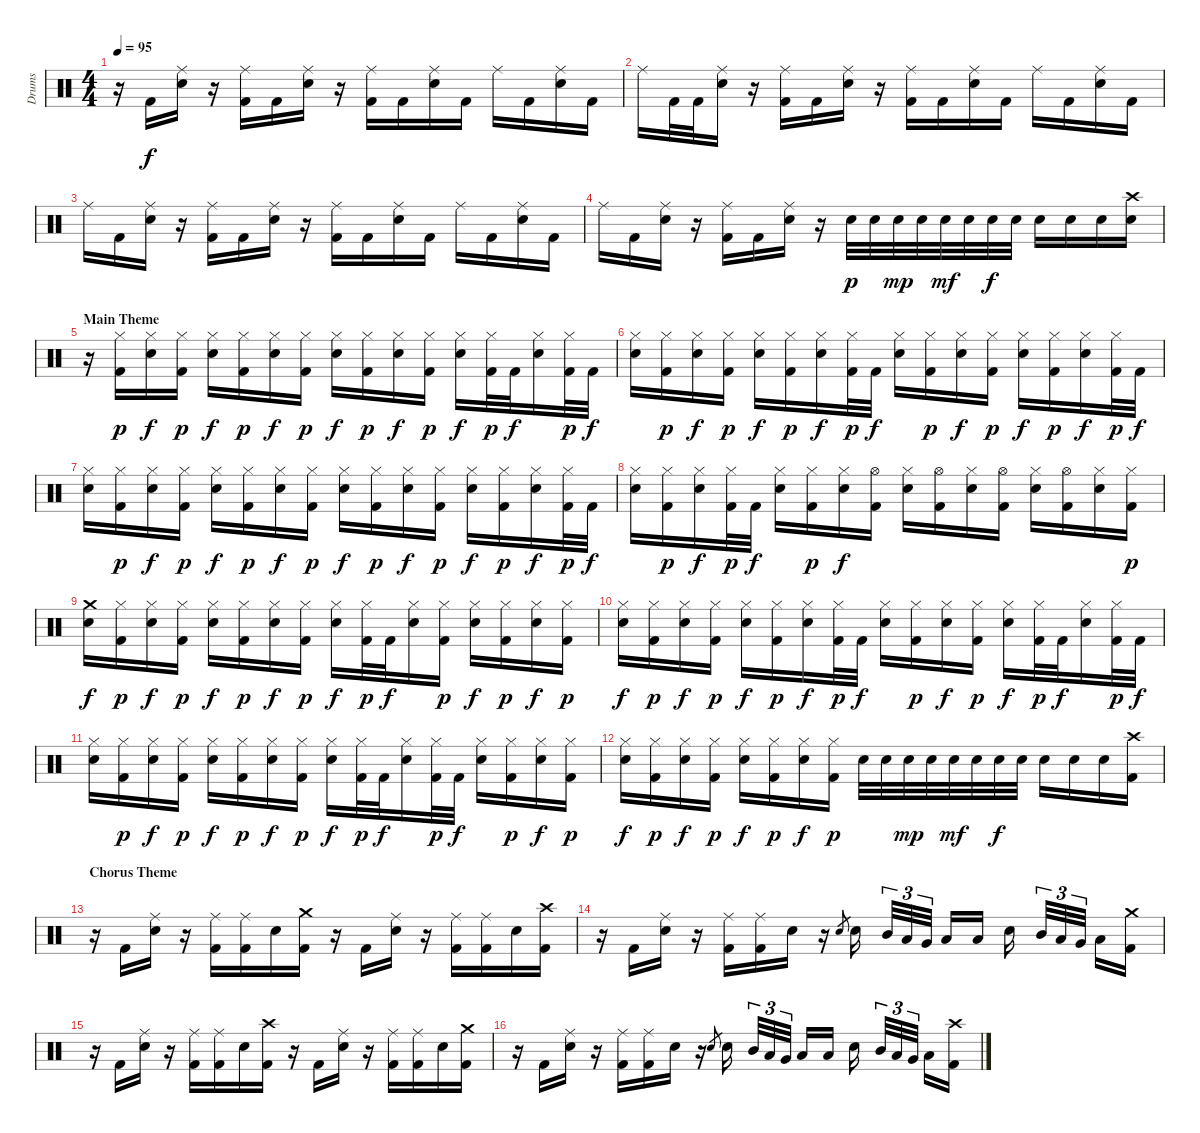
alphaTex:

\track ("Drums" "Drums") {instrument percussion}
\staff {score}
\articulation defaults
\ts (4 4)
\tempo 95
\clef neutral
\ks c
r.16{dy f} "Kick (hit) 2".16 ("Ride (middle)" "Snare (hit) 2").16 r.16 ("Ride (middle)" "Kick (hit) 2").16 "Kick (hit) 2".16 ("Ride (middle)" "Snare (hit) 2").16 r.16 ("Ride (middle)" "Kick (hit) 2").16 "Kick (hit) 2".16 ("Ride (middle)" "Snare (hit) 2").16 "Kick (hit) 2".16 "Ride (middle)".16 "Kick (hit) 2".16 ("Ride (middle)" "Snare (hit) 2").16 "Kick (hit) 2".16 |
"Ride (middle)".16 "Kick (hit) 2".32 "Kick (hit) 2".32 ("Ride (middle)" "Snare (hit) 2").16 r.16 ("Ride (middle)" "Kick (hit) 2").16 "Kick (hit) 2".16 ("Ride (middle)" "Snare (hit) 2").16 r.16 ("Ride (middle)" "Kick (hit) 2").16 "Kick (hit) 2".16 ("Ride (middle)" "Snare (hit) 2").16 "Kick (hit) 2".16 "Ride (middle)".16 "Kick (hit) 2".16 ("Ride (middle)" "Snare (hit) 2").16 "Kick (hit) 2".16 |
"Ride (middle)".16 "Kick (hit) 2".16 ("Ride (middle)" "Snare (hit) 2").16 r.16 ("Ride (middle)" "Kick (hit) 2").16 "Kick (hit) 2".16 ("Ride (middle)" "Snare (hit) 2").16 r.16 ("Ride (middle)" "Kick (hit) 2").16 "Kick (hit) 2".16 ("Ride (middle)" "Snare (hit) 2").16 "Kick (hit) 2".16 "Ride (middle)".16 "Kick (hit) 2".16 ("Ride (middle)" "Snare (hit) 2").16 "Kick (hit) 2".16 |
"Ride (middle)".16 "Kick (hit) 2".16 ("Ride (middle)" "Snare (hit) 2").16 r.16 ("Ride (middle)" "Kick (hit) 2").16 "Kick (hit) 2".16 ("Ride (middle)" "Snare (hit) 2").16 r.16 "Snare (hit) 2".32{dy p} "Snare (hit) 2".32 "Snare (hit) 2".32{dy mp} "Snare (hit) 2".32 "Snare (hit) 2".32{dy mf} "Snare (hit) 2".32 "Snare (hit) 2".32{dy f} "Snare (hit) 2".32 "Snare (hit) 2".16 "Snare (hit) 2".16 "Snare (hit) 2".16 ("Crash high (hit)" "Snare (hit) 2").16 |
\section ("" "Main Theme")
r.16 ("Hi-Hat (closed)" "Kick (hit) 2").16{dy p} ("Hi-Hat (closed)" "Snare (hit) 2").16{dy f} ("Hi-Hat (closed)" "Kick (hit) 2").16{dy p} ("Hi-Hat (closed)" "Snare (hit) 2").16{dy f} ("Hi-Hat (closed)" "Kick (hit) 2").16{dy p} ("Hi-Hat (closed)" "Snare (hit) 2").16{dy f} ("Hi-Hat (closed)" "Kick (hit) 2").16{dy p} ("Hi-Hat (closed)" "Snare (hit) 2").16{dy f} ("Hi-Hat (closed)" "Kick (hit) 2").16{dy p} ("Hi-Hat (closed)" "Snare (hit) 2").16{dy f} ("Hi-Hat (closed)" "Kick (hit) 2").16{dy p} ("Hi-Hat (closed)" "Snare (hit) 2").16{dy f} ("Hi-Hat (closed)" "Kick (hit) 2").32{dy p} "Kick (hit) 2".32{dy f} ("Hi-Hat (closed)" "Snare (hit) 2").16 ("Hi-Hat (closed)" "Kick (hit) 2").32{dy p} "Kick (hit) 2".32{dy f} |
("Hi-Hat (closed)" "Snare (hit) 2").16 ("Hi-Hat (closed)" "Kick (hit) 2").16{dy p} ("Hi-Hat (closed)" "Snare (hit) 2").16{dy f} ("Hi-Hat (closed)" "Kick (hit) 2").16{dy p} ("Hi-Hat (closed)" "Snare (hit) 2").16{dy f} ("Hi-Hat (closed)" "Kick (hit) 2").16{dy p} ("Hi-Hat (closed)" "Snare (hit) 2").16{dy f} ("Hi-Hat (closed)" "Kick (hit) 2").32{dy p} "Kick (hit) 2".32{dy f} ("Hi-Hat (closed)" "Snare (hit) 2").16 ("Hi-Hat (closed)" "Kick (hit) 2").16{dy p} ("Hi-Hat (closed)" "Snare (hit) 2").16{dy f} ("Hi-Hat (closed)" "Kick (hit) 2").16{dy p} ("Hi-Hat (closed)" "Snare (hit) 2").16{dy f} ("Hi-Hat (closed)" "Kick (hit) 2").16{dy p} ("Hi-Hat (closed)" "Snare (hit) 2").16{dy f} ("Hi-Hat (closed)" "Kick (hit) 2").32{dy p} "Kick (hit) 2".32{dy f} |
("Hi-Hat (closed)" "Snare (hit) 2").16 ("Hi-Hat (closed)" "Kick (hit) 2").16{dy p} ("Hi-Hat (closed)" "Snare (hit) 2").16{dy f} ("Hi-Hat (closed)" "Kick (hit) 2").16{dy p} ("Hi-Hat (closed)" "Snare (hit) 2").16{dy f} ("Hi-Hat (closed)" "Kick (hit) 2").16{dy p} ("Hi-Hat (closed)" "Snare (hit) 2").16{dy f} ("Hi-Hat (closed)" "Kick (hit) 2").16{dy p} ("Hi-Hat (closed)" "Snare (hit) 2").16{dy f} ("Hi-Hat (closed)" "Kick (hit) 2").16{dy p} ("Hi-Hat (closed)" "Snare (hit) 2").16{dy f} ("Hi-Hat (closed)" "Kick (hit) 2").16{dy p} ("Hi-Hat (closed)" "Snare (hit) 2").16{dy f} ("Hi-Hat (closed)" "Kick (hit) 2").16{dy p} ("Hi-Hat (closed)" "Snare (hit) 2").16{dy f} ("Hi-Hat (closed)" "Kick (hit) 2").32{dy p} "Kick (hit) 2".32{dy f} |
("Hi-Hat (closed)" "Snare (hit) 2").16 ("Hi-Hat (closed)" "Kick (hit) 2").16{dy p} ("Hi-Hat (closed)" "Snare (hit) 2").16{dy f} ("Hi-Hat (closed)" "Kick (hit) 2").32{dy p} "Kick (hit) 2".32{dy f} ("Hi-Hat (closed)" "Snare (hit) 2").16 ("Hi-Hat (closed)" "Kick (hit) 2").16{dy p} ("Hi-Hat (closed)" "Snare (hit) 2").16{dy f} ("Hi-Hat (open)" "Kick (hit) 2").16 ("Hi-Hat (closed)" "Snare (hit) 2").16 ("Hi-Hat (open)" "Kick (hit) 2").16 ("Hi-Hat (closed)" "Snare (hit) 2").16 ("Hi-Hat (open)" "Kick (hit) 2").16 ("Hi-Hat (closed)" "Snare (hit) 2").16 ("Hi-Hat (open)" "Kick (hit) 2").16 ("Hi-Hat (closed)" "Snare (hit) 2").16 ("Hi-Hat (closed)" "Kick (hit) 2").16{dy p} |
("Crash medium (hit)" "Snare (hit) 2").16{dy f} ("Hi-Hat (closed)" "Kick (hit) 2").16{dy p} ("Hi-Hat (closed)" "Snare (hit) 2").16{dy f} ("Hi-Hat (closed)" "Kick (hit) 2").16{dy p} ("Hi-Hat (closed)" "Snare (hit) 2").16{dy f} ("Hi-Hat (closed)" "Kick (hit) 2").16{dy p} ("Hi-Hat (closed)" "Snare (hit) 2").16{dy f} ("Hi-Hat (closed)" "Kick (hit) 2").16{dy p} ("Hi-Hat (closed)" "Snare (hit) 2").16{dy f} ("Hi-Hat (closed)" "Kick (hit) 2").32{dy p} "Kick (hit) 2".32{dy f} ("Hi-Hat (closed)" "Snare (hit) 2").16 ("Hi-Hat (closed)" "Kick (hit) 2").16{dy p} ("Hi-Hat (closed)" "Snare (hit) 2").16{dy f} ("Hi-Hat (closed)" "Kick (hit) 2").16{dy p} ("Hi-Hat (closed)" "Snare (hit) 2").16{dy f} ("Hi-Hat (closed)" "Kick (hit) 2").16{dy p} |
("Hi-Hat (closed)" "Snare (hit) 2").16{dy f} ("Hi-Hat (closed)" "Kick (hit) 2").16{dy p} ("Hi-Hat (closed)" "Snare (hit) 2").16{dy f} ("Hi-Hat (closed)" "Kick (hit) 2").16{dy p} ("Hi-Hat (closed)" "Snare (hit) 2").16{dy f} ("Hi-Hat (closed)" "Kick (hit) 2").16{dy p} ("Hi-Hat (closed)" "Snare (hit) 2").16{dy f} ("Hi-Hat (closed)" "Kick (hit) 2").32{dy p} "Kick (hit) 2".32{dy f} ("Hi-Hat (closed)" "Snare (hit) 2").16 ("Hi-Hat (closed)" "Kick (hit) 2").16{dy p} ("Hi-Hat (closed)" "Snare (hit) 2").16{dy f} ("Hi-Hat (closed)" "Kick (hit) 2").16{dy p} ("Hi-Hat (closed)" "Snare (hit) 2").16{dy f} ("Hi-Hat (closed)" "Kick (hit) 2").32{dy p} "Kick (hit) 2".32{dy f} ("Hi-Hat (closed)" "Snare (hit) 2").16 ("Hi-Hat (closed)" "Kick (hit) 2").32{dy p} "Kick (hit) 2".32{dy f} |
("Hi-Hat (closed)" "Snare (hit) 2").16 ("Hi-Hat (closed)" "Kick (hit) 2").16{dy p} ("Hi-Hat (closed)" "Snare (hit) 2").16{dy f} ("Hi-Hat (closed)" "Kick (hit) 2").16{dy p} ("Hi-Hat (closed)" "Snare (hit) 2").16{dy f} ("Hi-Hat (closed)" "Kick (hit) 2").16{dy p} ("Hi-Hat (closed)" "Snare (hit) 2").16{dy f} ("Hi-Hat (closed)" "Kick (hit) 2").16{dy p} ("Hi-Hat (closed)" "Snare (hit) 2").16{dy f} ("Hi-Hat (closed)" "Kick (hit) 2").32{dy p} "Kick (hit) 2".32{dy f} ("Hi-Hat (closed)" "Snare (hit) 2").16 ("Hi-Hat (closed)" "Kick (hit) 2").32{dy p} "Kick (hit) 2".32{dy f} ("Hi-Hat (closed)" "Snare (hit) 2").16 ("Hi-Hat (closed)" "Kick (hit) 2").16{dy p} ("Hi-Hat (closed)" "Snare (hit) 2").16{dy f} ("Hi-Hat (closed)" "Kick (hit) 2").16{dy p} |
("Hi-Hat (closed)" "Snare (hit) 2").16{dy f} ("Hi-Hat (closed)" "Kick (hit) 2").16{dy p} ("Hi-Hat (closed)" "Snare (hit) 2").16{dy f} ("Hi-Hat (closed)" "Kick (hit) 2").16{dy p} ("Hi-Hat (closed)" "Snare (hit) 2").16{dy f} ("Hi-Hat (closed)" "Kick (hit) 2").16{dy p} ("Hi-Hat (closed)" "Snare (hit) 2").16{dy f} ("Hi-Hat (closed)" "Kick (hit) 2").16{dy p} "Snare (hit) 2".32 "Snare (hit) 2".32 "Snare (hit) 2".32{dy mp} "Snare (hit) 2".32 "Snare (hit) 2".32{dy mf} "Snare (hit) 2".32 "Snare (hit) 2".32{dy f} "Snare (hit) 2".32 "Snare (hit) 2".16 "Snare (hit) 2".16 "Snare (hit) 2".16 ("Crash high (hit)" "Kick (hit) 2").16 |
\section ("" "Chorus Theme")
r.16 "Kick (hit) 2".16 ("Ride (middle)" "Snare (hit) 2").16 r.16 ("Ride (middle)" "Kick (hit) 2").16 ("Ride (middle)" "Kick (hit) 2").16 "Snare (hit) 2".16 ("Crash medium (hit)" "Kick (hit) 2").16 r.16 "Kick (hit) 2".16 ("Ride (middle)" "Snare (hit) 2").16 r.16 ("Ride (middle)" "Kick (hit) 2").16 ("Ride (middle)" "Kick (hit) 2").16 "Snare (hit) 2".16 ("Crash high (hit)" "Kick (hit) 2").16 |
r.16 "Kick (hit) 2".16 ("Ride (middle)" "Snare (hit) 2").16 r.16 ("Ride (middle)" "Kick (hit) 2").16 ("Ride (middle)" "Kick (hit) 2").16 "Snare (hit) 2".16 r.16 "Snare (hit) 2".8{gr} "Snare (hit) 2".16 "Mid Tom (hit)".32{tu (3 2)} "Low Tom (hit)".32{tu (3 2)} "Very Low Tom (hit)".32{tu (3 2)} "Low Floor Tom (hit)".16 "Low Floor Tom (hit)".16 "Snare (hit) 2".16 "Mid Tom (hit)".32{tu (3 2)} "Low Tom (hit)".32{tu (3 2)} "Very Low Tom (hit)".32{tu (3 2)} "Low Floor Tom (hit)".16 ("Crash medium (hit)" "Kick (hit) 2").16 |
r.16 "Kick (hit) 2".16 ("Ride (middle)" "Snare (hit) 2").16 r.16 ("Ride (middle)" "Kick (hit) 2").16 ("Ride (middle)" "Kick (hit) 2").16 "Snare (hit) 2".16 ("Crash high (hit)" "Kick (hit) 2").16 r.16 "Kick (hit) 2".16 ("Ride (middle)" "Snare (hit) 2").16 r.16 ("Ride (middle)" "Kick (hit) 2").16 ("Ride (middle)" "Kick (hit) 2").16 "Snare (hit) 2".16 ("Crash medium (hit)" "Kick (hit) 2").16 |
r.16 "Kick (hit) 2".16 ("Ride (middle)" "Snare (hit) 2").16 r.16 ("Ride (middle)" "Kick (hit) 2").16 ("Ride (middle)" "Kick (hit) 2").16 "Snare (hit) 2".16 r.16 "Snare (hit) 2".8{gr} "Snare (hit) 2".16 "Mid Tom (hit)".32{tu (3 2)} "Low Tom (hit)".32{tu (3 2)} "Very Low Tom (hit)".32{tu (3 2)} "Low Floor Tom (hit)".16 "Low Floor Tom (hit)".16 "Snare (hit) 2".16 "Mid Tom (hit)".32{tu (3 2)} "Low Tom (hit)".32{tu (3 2)} "Very Low Tom (hit)".32{tu (3 2)} "Low Floor Tom (hit)".16 ("Crash high (hit)" "Kick (hit) 2").16
